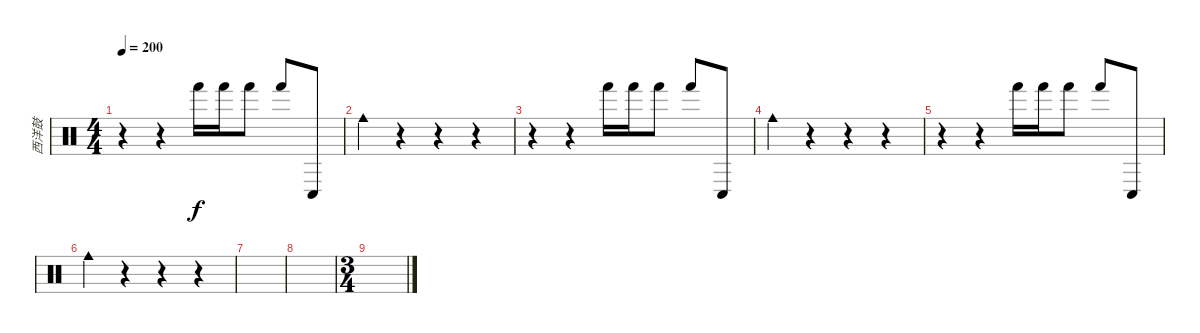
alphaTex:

\track ("西洋鼓" "西洋鼓") {instrument percussion}
\staff {score}
\articulation defaults
\ts (4 4)
\tempo 200
\clef neutral
\ks c
r.4{dy f} r.4 "Hand (hit)".16 "Hand (hit)".16 "Hand (hit)".8 "Hand (hit)".8 "Conga low (hit)".8 |
"Cowbell medium (hit)".4 r.4 r.4 r.4 |
r.4 r.4 "Hand (hit)".16 "Hand (hit)".16 "Hand (hit)".8 "Hand (hit)".8 "Conga low (hit)".8 |
"Cowbell medium (hit)".4 r.4 r.4 r.4 |
r.4 r.4 "Hand (hit)".16 "Hand (hit)".16 "Hand (hit)".8 "Hand (hit)".8 "Conga low (hit)".8 |
"Cowbell medium (hit)".4 r.4 r.4 r.4 |
|
|
\ts (3 4)
